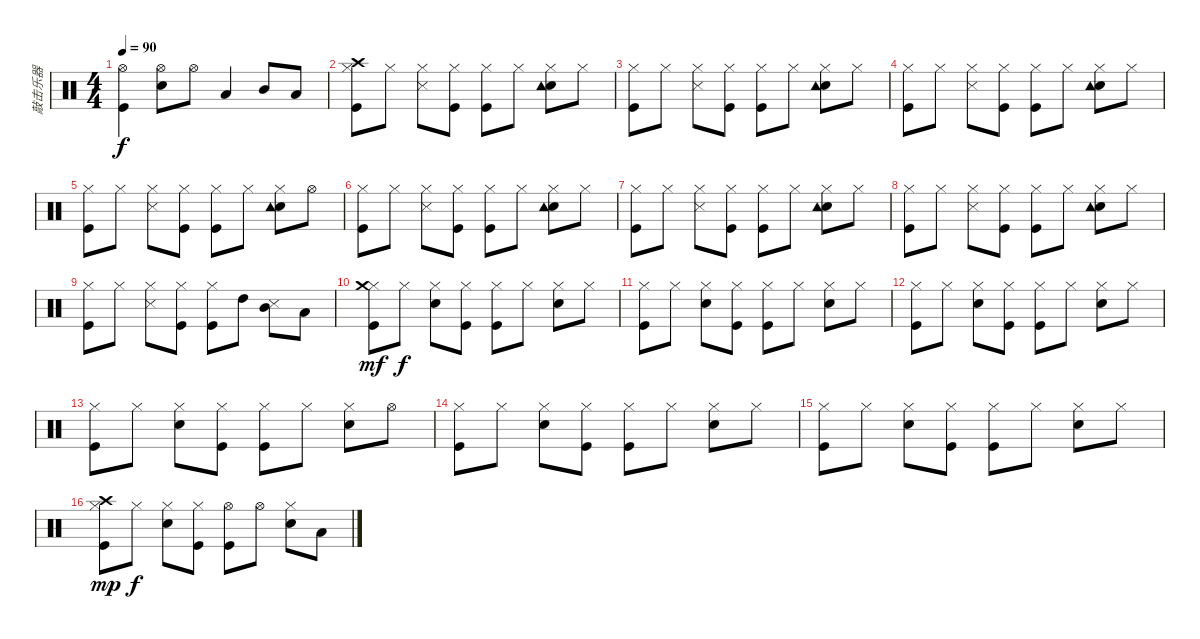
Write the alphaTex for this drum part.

\track ("敲击乐器" "敲击乐器") {instrument percussion}
\staff {score}
\articulation defaults
\ts (4 4)
\tempo 90
\clef neutral
\ks c
("Hi-Hat (open)" "Kick (hit)").4{dy f} ("Hi-Hat (open)" "Snare (hit) 2").8 "Hi-Hat (open)".8 "Low Tom (hit)".4 "Mid Tom (hit)".8 "Low Tom (hit)".8 |
("Hi-Hat (closed)" "Kick (hit)" "Crash high (hit)").8 "Hi-Hat (closed)".8 ("Hi-Hat (closed)" "Snare (side stick) 3").8 ("Hi-Hat (closed)" "Kick (hit)").8 ("Hi-Hat (closed)" "Kick (hit)").8 "Hi-Hat (closed)".8 ("Hi-Hat (closed)" "Snare (hit) 2" "Tambourine (hit)").8 "Hi-Hat (closed)".8 |
("Hi-Hat (closed)" "Kick (hit)").8 "Hi-Hat (closed)".8 ("Hi-Hat (closed)" "Snare (side stick) 3").8 ("Hi-Hat (closed)" "Kick (hit)").8 ("Hi-Hat (closed)" "Kick (hit)").8 "Hi-Hat (closed)".8 ("Hi-Hat (closed)" "Snare (hit) 2" "Tambourine (hit)").8 "Hi-Hat (closed)".8 |
("Hi-Hat (closed)" "Kick (hit)").8 "Hi-Hat (closed)".8 ("Hi-Hat (closed)" "Snare (side stick) 3").8 ("Hi-Hat (closed)" "Kick (hit)").8 ("Hi-Hat (closed)" "Kick (hit)").8 "Hi-Hat (closed)".8 ("Hi-Hat (closed)" "Snare (hit) 2" "Tambourine (hit)").8 "Hi-Hat (closed)".8 |
("Hi-Hat (closed)" "Kick (hit)").8 "Hi-Hat (closed)".8 ("Hi-Hat (closed)" "Snare (side stick) 3").8 ("Hi-Hat (closed)" "Kick (hit)").8 ("Hi-Hat (closed)" "Kick (hit)").8 "Hi-Hat (closed)".8 ("Hi-Hat (closed)" "Snare (hit) 2" "Tambourine (hit)").8 "Hi-Hat (open)".8 |
("Hi-Hat (closed)" "Kick (hit)").8 "Hi-Hat (closed)".8 ("Hi-Hat (closed)" "Snare (side stick) 3").8 ("Hi-Hat (closed)" "Kick (hit)").8 ("Hi-Hat (closed)" "Kick (hit)").8 "Hi-Hat (closed)".8 ("Hi-Hat (closed)" "Snare (hit) 2" "Tambourine (hit)").8 "Hi-Hat (closed)".8 |
("Hi-Hat (closed)" "Kick (hit)").8 "Hi-Hat (closed)".8 ("Hi-Hat (closed)" "Snare (side stick) 3").8 ("Hi-Hat (closed)" "Kick (hit)").8 ("Hi-Hat (closed)" "Kick (hit)").8 "Hi-Hat (closed)".8 ("Hi-Hat (closed)" "Snare (hit) 2" "Tambourine (hit)").8 "Hi-Hat (closed)".8 |
("Hi-Hat (closed)" "Kick (hit)").8 "Hi-Hat (closed)".8 ("Hi-Hat (closed)" "Snare (side stick) 3").8 ("Hi-Hat (closed)" "Kick (hit)").8 ("Hi-Hat (closed)" "Kick (hit)").8 "Hi-Hat (closed)".8 ("Hi-Hat (closed)" "Snare (hit) 2" "Tambourine (hit)").8 "Hi-Hat (closed)".8 |
("Hi-Hat (closed)" "Kick (hit)").8 "Hi-Hat (closed)".8 ("Hi-Hat (closed)" "Snare (side stick) 3").8 ("Hi-Hat (closed)" "Kick (hit)").8 ("Hi-Hat (closed)" "Kick (hit)").8 "High Tom (hit)".8 ("Snare (side stick) 3" "Mid Tom (hit)").8 "Low Tom (hit)".8 |
("Hi-Hat (closed)" "Kick (hit)" "Crash medium (hit)").8{dy mf} "Hi-Hat (closed)".8{dy f} ("Hi-Hat (closed)" "Snare (hit) 2").8 ("Hi-Hat (closed)" "Kick (hit)").8 ("Hi-Hat (closed)" "Kick (hit)").8 "Hi-Hat (closed)".8 ("Hi-Hat (closed)" "Snare (hit) 2").8 "Hi-Hat (closed)".8 |
("Hi-Hat (closed)" "Kick (hit)").8 "Hi-Hat (closed)".8 ("Hi-Hat (closed)" "Snare (hit) 2").8 ("Hi-Hat (closed)" "Kick (hit)").8 ("Hi-Hat (closed)" "Kick (hit)").8 "Hi-Hat (closed)".8 ("Hi-Hat (closed)" "Snare (hit) 2").8 "Hi-Hat (closed)".8 |
("Hi-Hat (closed)" "Kick (hit)").8 "Hi-Hat (closed)".8 ("Hi-Hat (closed)" "Snare (hit) 2").8 ("Hi-Hat (closed)" "Kick (hit)").8 ("Hi-Hat (closed)" "Kick (hit)").8 "Hi-Hat (closed)".8 ("Hi-Hat (closed)" "Snare (hit) 2").8 "Hi-Hat (closed)".8 |
("Hi-Hat (closed)" "Kick (hit)").8 "Hi-Hat (closed)".8 ("Hi-Hat (closed)" "Snare (hit) 2").8 ("Hi-Hat (closed)" "Kick (hit)").8 ("Hi-Hat (closed)" "Kick (hit)").8 "Hi-Hat (closed)".8 ("Hi-Hat (closed)" "Snare (hit) 2").8 "Hi-Hat (open)".8 |
("Hi-Hat (closed)" "Kick (hit)").8 "Hi-Hat (closed)".8 ("Hi-Hat (closed)" "Snare (hit) 2").8 ("Hi-Hat (closed)" "Kick (hit)").8 ("Hi-Hat (closed)" "Kick (hit)").8 "Hi-Hat (closed)".8 ("Hi-Hat (closed)" "Snare (hit) 2").8 "Hi-Hat (closed)".8 |
("Hi-Hat (closed)" "Kick (hit)").8 "Hi-Hat (closed)".8 ("Hi-Hat (closed)" "Snare (hit) 2").8 ("Hi-Hat (closed)" "Kick (hit)").8 ("Hi-Hat (closed)" "Kick (hit)").8 "Hi-Hat (closed)".8 ("Hi-Hat (closed)" "Snare (hit) 2").8 "Hi-Hat (closed)".8 |
("Hi-Hat (closed)" "Kick (hit)" "Crash high (hit)").8{dy mp} "Hi-Hat (closed)".8{dy f} ("Hi-Hat (closed)" "Snare (hit) 2").8 ("Hi-Hat (closed)" "Kick (hit)").8 ("Hi-Hat (open)" "Kick (hit)").8 "Hi-Hat (open)".8 ("Hi-Hat (closed)" "Snare (hit) 2").8 "Low Tom (hit)".8
